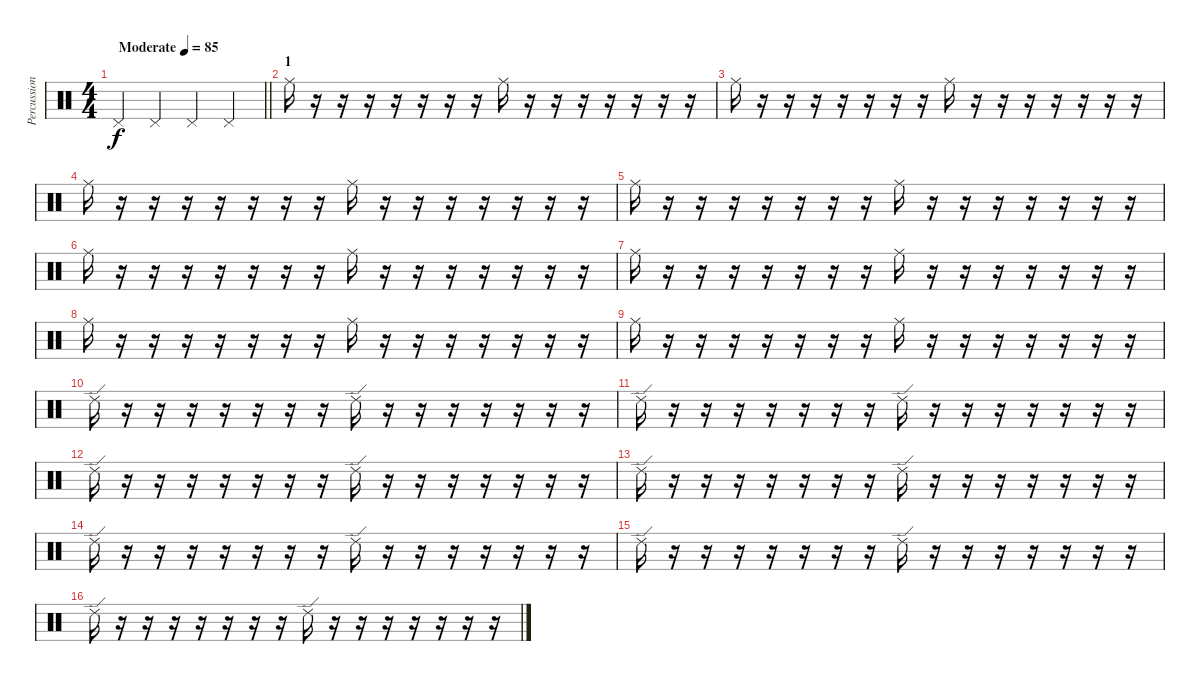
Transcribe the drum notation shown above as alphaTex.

\track ("Percussion" "Percussion") {instrument percussion}
\staff {score}
\articulation defaults
\ts (4 4)
\tempo (85 "Moderate")
\clef neutral
\barLineRight lightlight
\ks c "Pedal Hi-Hat (hit)".4{dy f} "Pedal Hi-Hat (hit)".4 "Pedal Hi-Hat (hit)".4 "Pedal Hi-Hat (hit)".4
|
\section ("" "1")
"Ride (middle)".16 r.16 r.16 r.16 r.16 r.16 r.16 r.16 "Ride (middle)".16 r.16 r.16 r.16 r.16 r.16 r.16 r.16 |
"Ride (middle)".16 r.16 r.16 r.16 r.16 r.16 r.16 r.16 "Ride (middle)".16 r.16 r.16 r.16 r.16 r.16 r.16 r.16 |
"Ride (middle)".16 r.16 r.16 r.16 r.16 r.16 r.16 r.16 "Ride (middle)".16 r.16 r.16 r.16 r.16 r.16 r.16 r.16 |
"Ride (middle)".16 r.16 r.16 r.16 r.16 r.16 r.16 r.16 "Ride (middle)".16 r.16 r.16 r.16 r.16 r.16 r.16 r.16 |
"Ride (middle)".16 r.16 r.16 r.16 r.16 r.16 r.16 r.16 "Ride (middle)".16 r.16 r.16 r.16 r.16 r.16 r.16 r.16 |
"Ride (middle)".16 r.16 r.16 r.16 r.16 r.16 r.16 r.16 "Ride (middle)".16 r.16 r.16 r.16 r.16 r.16 r.16 r.16 |
"Ride (middle)".16 r.16 r.16 r.16 r.16 r.16 r.16 r.16 "Ride (middle)".16 r.16 r.16 r.16 r.16 r.16 r.16 r.16 |
"Ride (middle)".16 r.16 r.16 r.16 r.16 r.16 r.16 r.16 "Ride (middle)".16 r.16 r.16 r.16 r.16 r.16 r.16 r.16 |
"Ride (edge) 2".16 r.16 r.16 r.16 r.16 r.16 r.16 r.16 "Ride (edge) 2".16 r.16 r.16 r.16 r.16 r.16 r.16 r.16 |
"Ride (edge) 2".16 r.16 r.16 r.16 r.16 r.16 r.16 r.16 "Ride (edge) 2".16 r.16 r.16 r.16 r.16 r.16 r.16 r.16 |
"Ride (edge) 2".16 r.16 r.16 r.16 r.16 r.16 r.16 r.16 "Ride (edge) 2".16 r.16 r.16 r.16 r.16 r.16 r.16 r.16 |
"Ride (edge) 2".16 r.16 r.16 r.16 r.16 r.16 r.16 r.16 "Ride (edge) 2".16 r.16 r.16 r.16 r.16 r.16 r.16 r.16 |
"Ride (edge) 2".16 r.16 r.16 r.16 r.16 r.16 r.16 r.16 "Ride (edge) 2".16 r.16 r.16 r.16 r.16 r.16 r.16 r.16 |
"Ride (edge) 2".16 r.16 r.16 r.16 r.16 r.16 r.16 r.16 "Ride (edge) 2".16 r.16 r.16 r.16 r.16 r.16 r.16 r.16 |
"Ride (edge) 2".16 r.16 r.16 r.16 r.16 r.16 r.16 r.16 "Ride (edge) 2".16 r.16 r.16 r.16 r.16 r.16 r.16 r.16
